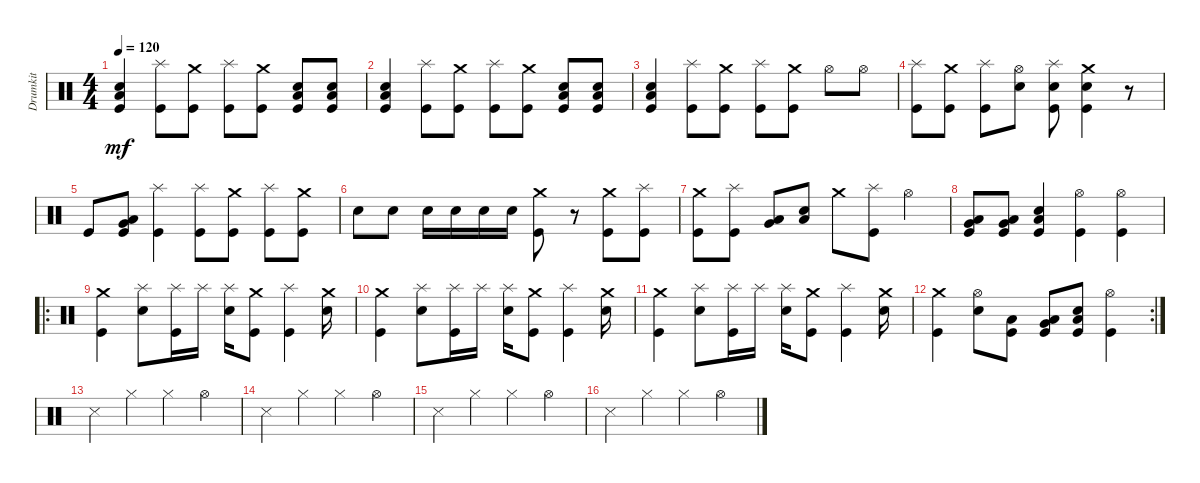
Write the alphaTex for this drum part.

\track ("Drumkit" "Drumkit") {instrument percussion}
\staff {score}
\articulation defaults
\ts (4 4)
\tempo 120
\clef neutral
\ks c
("Kick (hit)" "Snare (hit) 2" "Low Floor Tom (hit)").4{dy mf} ("Splash (hit)" "Kick (hit)").8 ("Kick (hit)" "Crash medium (hit)").8 ("Kick (hit)" "Splash (hit)").8 ("Kick (hit)" "Crash medium (hit)").8 ("Kick (hit)" "Snare (hit) 2" "Low Tom (hit)").8 ("Kick (hit)" "Low Floor Tom (hit)" "Snare (hit) 2").8 |
("Kick (hit)" "Snare (hit) 2" "Low Floor Tom (hit)").4 ("Splash (hit)" "Kick (hit)").8 ("Kick (hit)" "Crash medium (hit)").8 ("Kick (hit)" "Splash (hit)").8 ("Kick (hit)" "Crash medium (hit)").8 ("Kick (hit)" "Snare (hit) 2" "Low Tom (hit)").8 ("Kick (hit)" "Low Floor Tom (hit)" "Snare (hit) 2").8 |
("Kick (hit)" "Snare (hit) 2" "Low Floor Tom (hit)").4 ("Splash (hit)" "Kick (hit)").8 ("Kick (hit)" "Crash medium (hit)").8 ("Kick (hit)" "Splash (hit)").8 ("Kick (hit)" "Crash medium (hit)").8 "Hi-Hat (open)".8 "Hi-Hat (open)".8 |
("Splash (hit)" "Kick (hit)").8 ("Kick (hit)" "Crash medium (hit)").8 ("Kick (hit)" "Splash (hit)").8 ("Snare (hit) 2" "Hi-Hat (open)").8 ("Kick (hit)" "Snare (hit) 2" "Splash (hit)").8 ("Kick (hit)" "Snare (hit) 2" "Crash medium (hit)").4 r.8 |
"Kick (hit)".8 ("Low Floor Tom (hit)" "Very Low Tom (hit)" "Kick (hit)").8 ("Kick (hit)" "Splash (hit)").4 ("Splash (hit)" "Kick (hit)").8 ("Kick (hit)" "Crash medium (hit)").8 ("Kick (hit)" "Splash (hit)").8 ("Kick (hit)" "Crash medium (hit)").8 |
"Snare (hit) 2".8 "Snare (hit) 2".8 "Snare (hit) 2".16 "Snare (hit) 2".16 "Snare (hit) 2".16 "Snare (hit) 2".16 ("Kick (hit)" "Crash medium (hit)").8 r.8 ("Kick (hit)" "Crash medium (hit)").8 ("Kick (hit)" "Splash (hit)").8 |
("Kick (hit)" "Crash medium (hit)").8 ("Kick (hit)" "Splash (hit)").8 ("Very Low Tom (hit)" "Low Tom (hit)").8 ("Low Floor Tom (hit)" "Snare (hit) 2").8 "Crash medium (hit)".8 ("Kick (hit)" "Splash (hit)").8 "Hi-Hat (open)".4 |
("Low Floor Tom (hit)" "Very Low Tom (hit)" "Kick (hit)").8 ("Low Floor Tom (hit)" "Very Low Tom (hit)" "Kick (hit)").8 ("Kick (hit)" "Low Floor Tom (hit)" "Snare (hit) 2").4 ("Hi-Hat (open)" "Kick (hit)").4 ("Hi-Hat (open)" "Kick (hit)").4 |
\ro
("Kick (hit)" "Crash medium (hit)").4 ("Snare (hit) 2" "Splash (hit)").8 ("Kick (hit)" "Splash (hit)").16 "Splash (hit)".16 ("Snare (hit) 2" "Splash (hit)").16 ("Kick (hit)" "Crash medium (hit)").8 ("Kick (hit)" "Splash (hit)").4 ("Crash medium (hit)" "Snare (hit) 2").16 |
("Kick (hit)" "Crash medium (hit)").4 ("Snare (hit) 2" "Splash (hit)").8 ("Kick (hit)" "Splash (hit)").16 "Splash (hit)".16 ("Snare (hit) 2" "Splash (hit)").16 ("Kick (hit)" "Crash medium (hit)").8 ("Kick (hit)" "Splash (hit)").4 ("Crash medium (hit)" "Snare (hit) 2").16 |
("Kick (hit)" "Crash medium (hit)").4 ("Snare (hit) 2" "Splash (hit)").8 ("Kick (hit)" "Splash (hit)").16 "Splash (hit)".16 ("Snare (hit) 2" "Splash (hit)").16 ("Kick (hit)" "Crash medium (hit)").8 ("Kick (hit)" "Splash (hit)").4 ("Crash medium (hit)" "Snare (hit) 2").16 |
\rc 2
("Kick (hit)" "Crash medium (hit)").4 ("Hi-Hat (open)" "Snare (hit) 2").8 ("Kick (hit)" "Low Tom (hit)").8 ("Low Floor Tom (hit)" "Very Low Tom (hit)" "Kick (hit)").8 ("Kick (hit)" "Low Floor Tom (hit)" "Snare (hit) 2").8 ("Kick (hit)" "Hi-Hat (open)").4 |
"Snare (side stick) 3".4 "Hi-Hat (closed)".4 "Hi-Hat (closed)".4 "Hi-Hat (open)".4 |
"Snare (side stick) 3".4 "Hi-Hat (closed)".4 "Hi-Hat (closed)".4 "Hi-Hat (open)".4 |
"Snare (side stick) 3".4 "Hi-Hat (closed)".4 "Hi-Hat (closed)".4 "Hi-Hat (open)".4 |
"Snare (side stick) 3".4 "Hi-Hat (closed)".4 "Hi-Hat (closed)".4 "Hi-Hat (open)".4
